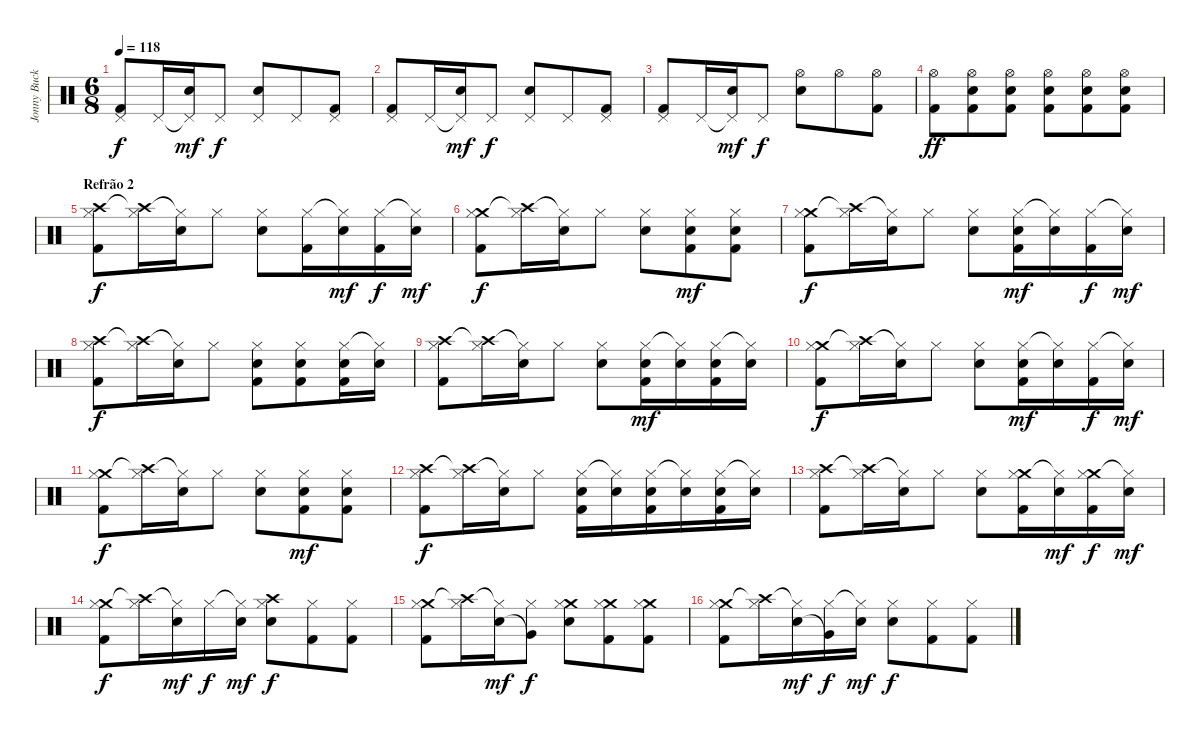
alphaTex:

\track ("Jonny Buckland (batera)" "Jonny Buck") {instrument percussion}
\staff {score}
\articulation defaults
\ts (6 8)
\tempo 118
\clef neutral
\ks c
("Pedal Hi-Hat (hit)" "Kick (hit) 2").8{dy f} "Pedal Hi-Hat (hit)".16 ("Pedal Hi-Hat (hit)"{t} "Snare (hit) 2").16{dy mf} "Pedal Hi-Hat (hit)".8{dy f} ("Pedal Hi-Hat (hit)" "Electric Snare (hit)").8 "Pedal Hi-Hat (hit)".8 ("Pedal Hi-Hat (hit)" "Kick (hit) 2").8 |
("Pedal Hi-Hat (hit)" "Kick (hit) 2").8 "Pedal Hi-Hat (hit)".16 ("Pedal Hi-Hat (hit)"{t} "Snare (hit) 2").16{dy mf} "Pedal Hi-Hat (hit)".8{dy f} ("Pedal Hi-Hat (hit)" "Electric Snare (hit)").8 "Pedal Hi-Hat (hit)".8 ("Pedal Hi-Hat (hit)" "Kick (hit) 2").8 |
("Pedal Hi-Hat (hit)" "Kick (hit) 2").8 "Pedal Hi-Hat (hit)".16 ("Pedal Hi-Hat (hit)"{t} "Snare (hit) 2").16{dy mf} "Pedal Hi-Hat (hit)".8{dy f} ("Hi-Hat (open)" "Electric Snare (hit)").8 "Hi-Hat (open)".8 ("Hi-Hat (open)" "Kick (hit) 2").8 |
("Hi-Hat (open)" "Kick (hit) 2").8{dy ff} ("Hi-Hat (open)" "Electric Snare (hit)" "Kick (hit) 2").8 ("Hi-Hat (open)" "Electric Snare (hit)" "Kick (hit) 2").8 ("Hi-Hat (open)" "Electric Snare (hit)" "Kick (hit) 2").8 ("Hi-Hat (open)" "Electric Snare (hit)" "Kick (hit) 2").8 ("Hi-Hat (open)" "Electric Snare (hit)" "Kick (hit) 2").8 |
\section ("" "Refrão 2")
("Crash high (hit)" "Hi-Hat (closed)" "Kick (hit) 2").8{dy f} ("Crash high (hit)"{t} "Hi-Hat (closed)").16 ("Hi-Hat (closed)"{t} "Electric Snare (hit)").16 "Hi-Hat (closed)".8 ("Hi-Hat (closed)" "Electric Snare (hit)").8 ("Hi-Hat (closed)" "Kick (hit) 2").16 ("Hi-Hat (closed)"{t} "Snare (hit) 2").16{dy mf} ("Hi-Hat (closed)" "Kick (hit) 2").16{dy f} ("Hi-Hat (closed)"{t} "Snare (hit) 2").16{dy mf} |
("Crash medium (hit)" "Hi-Hat (closed)" "Kick (hit) 2").8{dy f} ("Crash high (hit)"{t} "Hi-Hat (closed)").16 ("Hi-Hat (closed)"{t} "Electric Snare (hit)").16 "Hi-Hat (closed)".8 ("Hi-Hat (closed)" "Electric Snare (hit)").8 ("Hi-Hat (closed)" "Snare (hit) 2" "Kick (hit) 2").8{dy mf} ("Hi-Hat (closed)" "Snare (hit) 2" "Kick (hit) 2").8 |
("Crash medium (hit)" "Hi-Hat (closed)" "Kick (hit) 2").8{dy f} ("Crash high (hit)"{t} "Hi-Hat (closed)").16 ("Hi-Hat (closed)"{t} "Electric Snare (hit)").16 "Hi-Hat (closed)".8 ("Hi-Hat (closed)" "Electric Snare (hit)").8 ("Hi-Hat (closed)" "Snare (hit) 2" "Kick (hit) 2").16{dy mf} ("Hi-Hat (closed)"{t} "Snare (hit) 2").16 ("Hi-Hat (closed)" "Kick (hit) 2").16{dy f} ("Hi-Hat (closed)"{t} "Snare (hit) 2").16{dy mf} |
("Crash high (hit)" "Hi-Hat (closed)" "Kick (hit) 2").8{dy f} ("Crash high (hit)"{t} "Hi-Hat (closed)").16 ("Hi-Hat (closed)"{t} "Electric Snare (hit)").16 "Hi-Hat (closed)".8 ("Hi-Hat (closed)" "Electric Snare (hit)" "Kick (hit) 2").8 ("Hi-Hat (closed)" "Electric Snare (hit)" "Kick (hit) 2").8 ("Hi-Hat (closed)" "Electric Snare (hit)" "Kick (hit) 2").16 ("Hi-Hat (closed)"{t} "Electric Snare (hit)").16 |
("Crash high (hit)" "Hi-Hat (closed)" "Kick (hit) 2").8 ("Crash high (hit)"{t} "Hi-Hat (closed)").16 ("Hi-Hat (closed)"{t} "Electric Snare (hit)").16 "Hi-Hat (closed)".8 ("Hi-Hat (closed)" "Electric Snare (hit)").8 ("Hi-Hat (closed)" "Snare (hit) 2" "Kick (hit) 2").16{dy mf} ("Hi-Hat (closed)"{t} "Snare (hit) 2").16 ("Hi-Hat (closed)" "Snare (hit) 2" "Kick (hit) 2").16 ("Hi-Hat (closed)"{t} "Snare (hit) 2").16 |
("Crash medium (hit)" "Hi-Hat (closed)" "Kick (hit) 2").8{dy f} ("Crash high (hit)"{t} "Hi-Hat (closed)").16 ("Hi-Hat (closed)"{t} "Electric Snare (hit)").16 "Hi-Hat (closed)".8 ("Hi-Hat (closed)" "Electric Snare (hit)").8 ("Hi-Hat (closed)" "Snare (hit) 2" "Kick (hit) 2").16{dy mf} ("Hi-Hat (closed)"{t} "Snare (hit) 2").16 ("Hi-Hat (closed)" "Kick (hit) 2").16{dy f} ("Hi-Hat (closed)"{t} "Snare (hit) 2").16{dy mf} |
("Crash medium (hit)" "Hi-Hat (closed)" "Kick (hit) 2").8{dy f} ("Crash high (hit)"{t} "Hi-Hat (closed)").16 ("Hi-Hat (closed)"{t} "Electric Snare (hit)").16 "Hi-Hat (closed)".8 ("Hi-Hat (closed)" "Electric Snare (hit)").8 ("Hi-Hat (closed)" "Snare (hit) 2" "Kick (hit) 2").8{dy mf} ("Hi-Hat (closed)" "Snare (hit) 2" "Kick (hit) 2").8 |
("Crash high (hit)" "Hi-Hat (closed)" "Kick (hit) 2").8{dy f} ("Crash high (hit)"{t} "Hi-Hat (closed)").16 ("Hi-Hat (closed)"{t} "Electric Snare (hit)").16 "Hi-Hat (closed)".8 ("Hi-Hat (closed)" "Electric Snare (hit)" "Kick (hit) 2").16 ("Hi-Hat (closed)"{t} "Electric Snare (hit)").16 ("Hi-Hat (closed)" "Electric Snare (hit)" "Kick (hit) 2").16 ("Hi-Hat (closed)"{t} "Electric Snare (hit)").16 ("Hi-Hat (closed)" "Snare (hit) 2" "Kick (hit) 2").16 ("Hi-Hat (closed)"{t} "Snare (hit) 2").16 |
("Crash high (hit)" "Hi-Hat (closed)" "Kick (hit) 2").8 ("Crash high (hit)"{t} "Hi-Hat (closed)").16 ("Hi-Hat (closed)"{t} "Electric Snare (hit)").16 "Hi-Hat (closed)".8 ("Hi-Hat (closed)" "Electric Snare (hit)").8 ("Crash medium (hit)" "Hi-Hat (closed)" "Kick (hit) 2").16 ("Hi-Hat (closed)"{t} "Snare (hit) 2").16{dy mf} ("Crash medium (hit)" "Hi-Hat (closed)" "Kick (hit) 2").16{dy f} ("Hi-Hat (closed)"{t} "Snare (hit) 2").16{dy mf} |
("Crash medium (hit)" "Hi-Hat (closed)" "Kick (hit) 2").8{dy f} ("Crash high (hit)"{t} "Hi-Hat (closed)").16 ("Hi-Hat (closed)"{t} "Snare (hit) 2").16{dy mf} "Hi-Hat (closed)".16{dy f} ("Hi-Hat (closed)"{t} "Snare (hit) 2").16{dy mf} ("Crash high (hit)" "Hi-Hat (closed)" "Electric Snare (hit)").8{dy f} ("Hi-Hat (closed)" "Kick (hit) 2").8 ("Hi-Hat (closed)" "Kick (hit) 2").8 |
("Crash medium (hit)" "Hi-Hat (closed)" "Kick (hit) 2").8 ("Crash high (hit)"{t} "Hi-Hat (closed)").16 ("Hi-Hat (closed)"{t} "Snare (hit) 2").16{dy mf} ("Hi-Hat (closed)" "Very Low Tom (hit)"{t}).8{dy f} ("Crash medium (hit)" "Hi-Hat (closed)" "Electric Snare (hit)").8 ("Crash medium (hit)" "Hi-Hat (closed)" "Kick (hit) 2").8 ("Crash medium (hit)" "Hi-Hat (closed)" "Kick (hit) 2").8 |
("Crash medium (hit)" "Hi-Hat (closed)" "Kick (hit) 2").8 ("Crash high (hit)"{t} "Hi-Hat (closed)").16 ("Hi-Hat (closed)"{t} "Snare (hit) 2").16{dy mf} ("Hi-Hat (closed)" "Very Low Tom (hit)"{t}).16{dy f} ("Hi-Hat (closed)"{t} "Snare (hit) 2").16{dy mf} ("Hi-Hat (closed)" "Electric Snare (hit)").8{dy f} ("Hi-Hat (closed)" "Kick (hit) 2").8 ("Hi-Hat (closed)" "Kick (hit) 2").8
